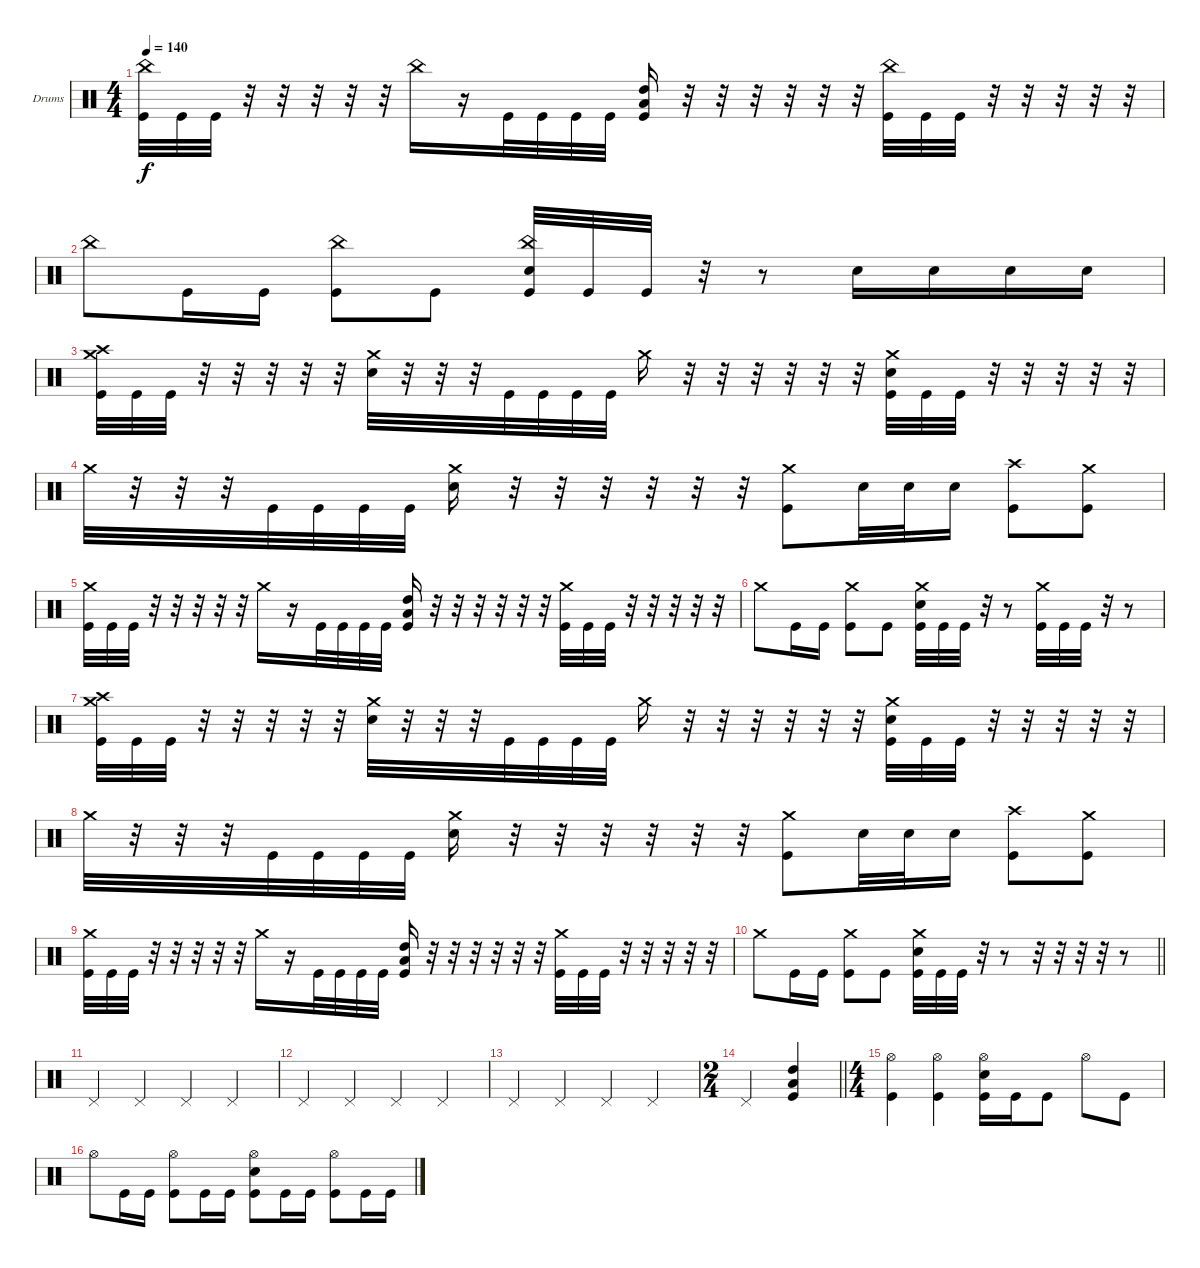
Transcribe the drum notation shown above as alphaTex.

\bracketExtendMode groupsimilarinstruments
\firstSystemTrackNameOrientation horizontal
\otherSystemsTrackNameOrientation horizontal
\track ("Drumkit" "Drums") {instrument percussion}
\staff {score}
\articulation defaults
\ts (4 4)
\tempo 140
\clef neutral
\ks c
("Kick (hit)" "China (hit)").32{dy f} "Kick (hit)".32 "Kick (hit)".32 r.32 r.32 r.32 r.32 r.32 "China (hit)".16 r.16 "Kick (hit)".32 "Kick (hit)".32 "Kick (hit)".32 "Kick (hit)".32 ("Kick (hit)" "Low Tom (hit)" "High Tom (hit)").16 r.32 r.32 r.32 r.32 r.32 r.32 ("Kick (hit)" "China (hit)").32 "Kick (hit)".32 "Kick (hit)".32 r.32 r.32 r.32 r.32 r.32 |
"China (hit)".8 "Kick (hit)".16 "Kick (hit)".16 ("Kick (hit)" "China (hit)").8 "Kick (hit)".8 ("Kick (hit)" "China (hit)" "Snare (hit) 2").32 "Kick (hit)".32 "Kick (hit)".32 r.32 r.8 "Snare (hit) 2".16 "Snare (hit) 2".16 "Snare (hit) 2".16 "Snare (hit) 2".16 |
("Kick (hit)" "Crash medium (hit)" "Crash high (hit)").32 "Kick (hit)".32 "Kick (hit)".32 r.32 r.32 r.32 r.32 r.32 ("Crash medium (hit)" "Snare (hit) 2").32 r.32 r.32 r.32 "Kick (hit)".32 "Kick (hit)".32 "Kick (hit)".32 "Kick (hit)".32 "Crash medium (hit)".16 r.32 r.32 r.32 r.32 r.32 r.32 ("Kick (hit)" "Crash medium (hit)" "Snare (hit) 2").32 "Kick (hit)".32 "Kick (hit)".32 r.32 r.32 r.32 r.32 r.32 |
"Crash medium (hit)".32 r.32 r.32 r.32 "Kick (hit)".32 "Kick (hit)".32 "Kick (hit)".32 "Kick (hit)".32 ("Snare (hit) 2" "Crash medium (hit)").16 r.32 r.32 r.32 r.32 r.32 r.32 ("Crash medium (hit)" "Kick (hit)").8 "Snare (hit) 2".32 "Snare (hit) 2".32 "Snare (hit) 2".16 ("Kick (hit)" "Crash high (hit)").8 ("Kick (hit)" "Crash medium (hit)").8 |
("Kick (hit)" "Crash medium (hit)").32 "Kick (hit)".32 "Kick (hit)".32 r.32 r.32 r.32 r.32 r.32 "Crash medium (hit)".16 r.16 "Kick (hit)".32 "Kick (hit)".32 "Kick (hit)".32 "Kick (hit)".32 ("Kick (hit)" "Low Tom (hit)" "High Tom (hit)").16 r.32 r.32 r.32 r.32 r.32 r.32 ("Kick (hit)" "Crash medium (hit)").32 "Kick (hit)".32 "Kick (hit)".32 r.32 r.32 r.32 r.32 r.32 |
"Crash medium (hit)".8 "Kick (hit)".16 "Kick (hit)".16 ("Kick (hit)" "Crash medium (hit)").8 "Kick (hit)".8 ("Kick (hit)" "Snare (hit) 2" "Crash medium (hit)").32 "Kick (hit)".32 "Kick (hit)".32 r.32 r.8 ("Kick (hit)" "Crash medium (hit)").32 "Kick (hit)".32 "Kick (hit)".32 r.32 r.8 |
("Kick (hit)" "Crash medium (hit)" "Crash high (hit)").32 "Kick (hit)".32 "Kick (hit)".32 r.32 r.32 r.32 r.32 r.32 ("Crash medium (hit)" "Snare (hit) 2").32 r.32 r.32 r.32 "Kick (hit)".32 "Kick (hit)".32 "Kick (hit)".32 "Kick (hit)".32 "Crash medium (hit)".16 r.32 r.32 r.32 r.32 r.32 r.32 ("Kick (hit)" "Crash medium (hit)" "Snare (hit) 2").32 "Kick (hit)".32 "Kick (hit)".32 r.32 r.32 r.32 r.32 r.32 |
"Crash medium (hit)".32 r.32 r.32 r.32 "Kick (hit)".32 "Kick (hit)".32 "Kick (hit)".32 "Kick (hit)".32 ("Snare (hit) 2" "Crash medium (hit)").16 r.32 r.32 r.32 r.32 r.32 r.32 ("Crash medium (hit)" "Kick (hit)").8 "Snare (hit) 2".32 "Snare (hit) 2".32 "Snare (hit) 2".16 ("Kick (hit)" "Crash high (hit)").8 ("Kick (hit)" "Crash medium (hit)").8 |
("Kick (hit)" "Crash medium (hit)").32 "Kick (hit)".32 "Kick (hit)".32 r.32 r.32 r.32 r.32 r.32 "Crash medium (hit)".16 r.16 "Kick (hit)".32 "Kick (hit)".32 "Kick (hit)".32 "Kick (hit)".32 ("Kick (hit)" "Low Tom (hit)" "High Tom (hit)").16 r.32 r.32 r.32 r.32 r.32 r.32 ("Kick (hit)" "Crash medium (hit)").32 "Kick (hit)".32 "Kick (hit)".32 r.32 r.32 r.32 r.32 r.32 |
\barLineRight lightlight "Crash medium (hit)".8 "Kick (hit)".16 "Kick (hit)".16
("Kick (hit)" "Crash medium (hit)").8 "Kick (hit)".8 ("Kick (hit)" "Snare (hit) 2" "Crash medium (hit)").32 "Kick (hit)".32 "Kick (hit)".32 r.32 r.8 r.32 r.32 r.32 r.32 r.8 |
\section ("" "")
"Pedal Hi-Hat (hit)".4 "Pedal Hi-Hat (hit)".4 "Pedal Hi-Hat (hit)".4 "Pedal Hi-Hat (hit)".4 |
"Pedal Hi-Hat (hit)".4 "Pedal Hi-Hat (hit)".4 "Pedal Hi-Hat (hit)".4 "Pedal Hi-Hat (hit)".4 |
"Pedal Hi-Hat (hit)".4 "Pedal Hi-Hat (hit)".4 "Pedal Hi-Hat (hit)".4 "Pedal Hi-Hat (hit)".4 |
\ts (2 4)
\barLineRight lightlight "Pedal Hi-Hat (hit)".4
("Kick (hit)" "Low Tom (hit)" "High Tom (hit)").4 |
\ts (4 4)
\section ("" "")
("Kick (hit)" "Hi-Hat (open)").4 ("Kick (hit)" "Hi-Hat (open)").4 ("Kick (hit)" "Hi-Hat (open)" "Snare (hit) 2").16 "Kick (hit)".16 "Kick (hit)".8 "Hi-Hat (open)".8 "Kick (hit)".8 |
"Hi-Hat (open)".8 "Kick (hit)".16 "Kick (hit)".16 ("Kick (hit)" "Hi-Hat (open)").8 "Kick (hit)".16 "Kick (hit)".16 ("Kick (hit)" "Hi-Hat (open)" "Snare (hit) 2").8 "Kick (hit)".16 "Kick (hit)".16 ("Kick (hit)" "Hi-Hat (open)").8 "Kick (hit)".16 "Kick (hit)".16
